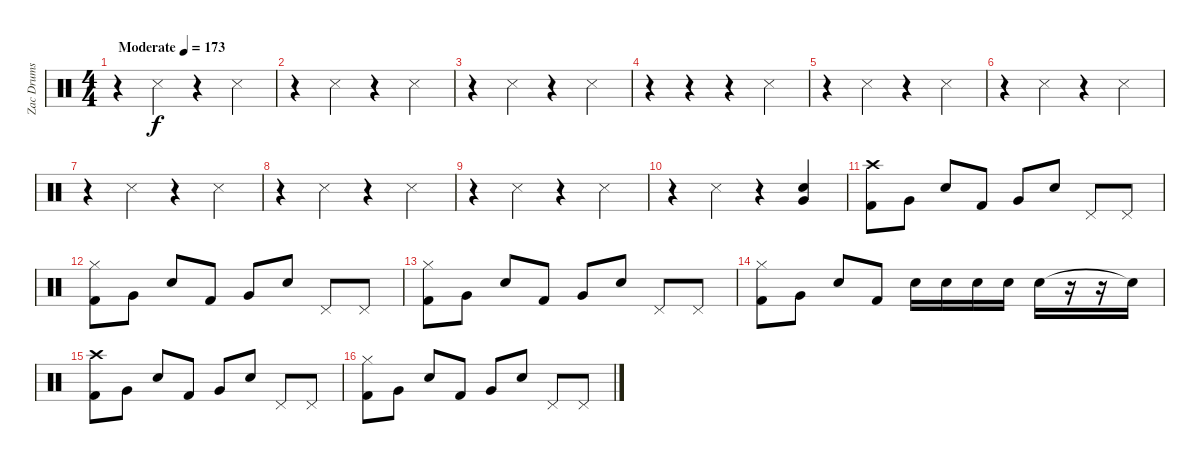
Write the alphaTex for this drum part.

\track ("Zac Drums" "Zac Drums") {instrument percussion}
\staff {score}
\articulation defaults
\ts (4 4)
\tempo (173 "Moderate")
\clef neutral
\ks c
r.4{dy f} "Snare (side stick) 3".4 r.4 "Snare (side stick) 3".4 |
r.4 "Snare (side stick) 3".4 r.4 "Snare (side stick) 3".4 |
r.4 "Snare (side stick) 3".4 r.4 "Snare (side stick) 3".4 |
r.4 r.4 r.4 "Snare (side stick) 3".4 |
r.4 "Snare (side stick) 3".4 r.4 "Snare (side stick) 3".4 |
r.4 "Snare (side stick) 3".4 r.4 "Snare (side stick) 3".4 |
r.4 "Snare (side stick) 3".4 r.4 "Snare (side stick) 3".4 |
r.4 "Snare (side stick) 3".4 r.4 "Snare (side stick) 3".4 |
r.4 "Snare (side stick) 3".4 r.4 "Snare (side stick) 3".4 |
r.4 "Snare (side stick) 3".4 r.4 ("Very Low Tom (hit)" "Electric Snare (hit)").4 |
("Crash high (hit)" "Kick (hit) 2").8 "Very Low Tom (hit)".8 "Electric Snare (hit)".8 "Kick (hit) 2".8 "Very Low Tom (hit)".8 "Electric Snare (hit)".8 "Pedal Hi-Hat (hit)".8 "Pedal Hi-Hat (hit)".8 |
("Hi-Hat (closed)" "Kick (hit) 2").8 "Very Low Tom (hit)".8 "Electric Snare (hit)".8 "Kick (hit) 2".8 "Very Low Tom (hit)".8 "Electric Snare (hit)".8 "Pedal Hi-Hat (hit)".8 "Pedal Hi-Hat (hit)".8 |
("Hi-Hat (closed)" "Kick (hit) 2").8 "Very Low Tom (hit)".8 "Electric Snare (hit)".8 "Kick (hit) 2".8 "Very Low Tom (hit)".8 "Electric Snare (hit)".8 "Pedal Hi-Hat (hit)".8 "Pedal Hi-Hat (hit)".8 |
("Hi-Hat (closed)" "Kick (hit) 2").8 "Very Low Tom (hit)".8 "Electric Snare (hit)".8 "Kick (hit) 2".8 "Electric Snare (hit)".16 "Electric Snare (hit)".16 "Electric Snare (hit)".16 "Electric Snare (hit)".16 "Electric Snare (hit)".16 r.16 r.16 "Snare (hit)"{t}.16 |
("Crash high (hit)" "Kick (hit) 2").8 "Very Low Tom (hit)".8 "Electric Snare (hit)".8 "Kick (hit) 2".8 "Very Low Tom (hit)".8 "Electric Snare (hit)".8 "Pedal Hi-Hat (hit)".8 "Pedal Hi-Hat (hit)".8 |
("Hi-Hat (closed)" "Kick (hit) 2").8 "Very Low Tom (hit)".8 "Electric Snare (hit)".8 "Kick (hit) 2".8 "Very Low Tom (hit)".8 "Electric Snare (hit)".8 "Pedal Hi-Hat (hit)".8 "Pedal Hi-Hat (hit)".8
